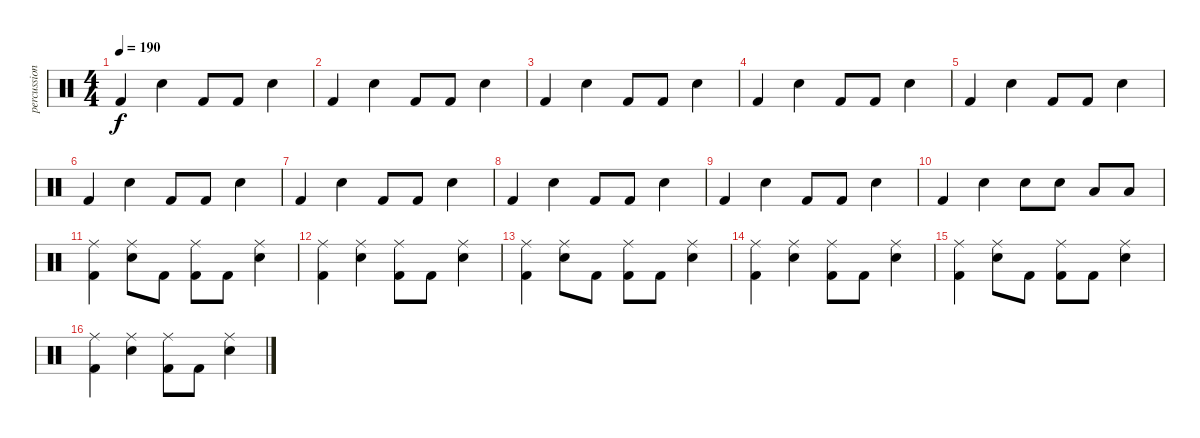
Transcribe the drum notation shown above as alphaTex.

\track ("percussion" "percussion") {instrument percussion}
\staff {score}
\articulation defaults
\ts (4 4)
\tempo 190
\clef neutral
\ks c "Kick (hit) 2".4{dy f} "Snare (hit) 2".4 "Kick (hit) 2".8 "Kick (hit) 2".8 "Snare (hit) 2".4
|
"Kick (hit) 2".4 "Snare (hit) 2".4 "Kick (hit) 2".8 "Kick (hit) 2".8 "Snare (hit) 2".4 |
"Kick (hit) 2".4 "Snare (hit) 2".4 "Kick (hit) 2".8 "Kick (hit) 2".8 "Snare (hit) 2".4 |
"Kick (hit) 2".4 "Snare (hit) 2".4 "Kick (hit) 2".8 "Kick (hit) 2".8 "Snare (hit) 2".4 |
"Kick (hit) 2".4 "Snare (hit) 2".4 "Kick (hit) 2".8 "Kick (hit) 2".8 "Snare (hit) 2".4 |
"Kick (hit) 2".4 "Snare (hit) 2".4 "Kick (hit) 2".8 "Kick (hit) 2".8 "Snare (hit) 2".4 |
"Kick (hit) 2".4 "Snare (hit) 2".4 "Kick (hit) 2".8 "Kick (hit) 2".8 "Snare (hit) 2".4 |
"Kick (hit) 2".4 "Snare (hit) 2".4 "Kick (hit) 2".8 "Kick (hit) 2".8 "Snare (hit) 2".4 |
"Kick (hit) 2".4 "Snare (hit) 2".4 "Kick (hit) 2".8 "Kick (hit) 2".8 "Snare (hit) 2".4 |
"Kick (hit) 2".4 "Snare (hit) 2".4 "Snare (hit) 2".8 "Snare (hit) 2".8 "Low Tom (hit)".8 "Low Tom (hit)".8 |
("Ride (middle)" "Kick (hit) 2").4 ("Ride (middle)" "Snare (hit) 2").8 "Kick (hit) 2".8 ("Ride (middle)" "Kick (hit) 2").8 "Kick (hit) 2".8 ("Ride (middle)" "Snare (hit) 2").4 |
("Ride (middle)" "Kick (hit) 2").4 ("Ride (middle)" "Snare (hit) 2").4 ("Ride (middle)" "Kick (hit) 2").8 "Kick (hit) 2".8 ("Ride (middle)" "Snare (hit) 2").4 |
("Ride (middle)" "Kick (hit) 2").4 ("Ride (middle)" "Snare (hit) 2").8 "Kick (hit) 2".8 ("Ride (middle)" "Kick (hit) 2").8 "Kick (hit) 2".8 ("Ride (middle)" "Snare (hit) 2").4 |
("Ride (middle)" "Kick (hit) 2").4 ("Ride (middle)" "Snare (hit) 2").4 ("Ride (middle)" "Kick (hit) 2").8 "Kick (hit) 2".8 ("Ride (middle)" "Snare (hit) 2").4 |
("Ride (middle)" "Kick (hit) 2").4 ("Ride (middle)" "Snare (hit) 2").8 "Kick (hit) 2".8 ("Ride (middle)" "Kick (hit) 2").8 "Kick (hit) 2".8 ("Ride (middle)" "Snare (hit) 2").4 |
("Ride (middle)" "Kick (hit) 2").4 ("Ride (middle)" "Snare (hit) 2").4 ("Ride (middle)" "Kick (hit) 2").8 "Kick (hit) 2".8 ("Ride (middle)" "Snare (hit) 2").4
